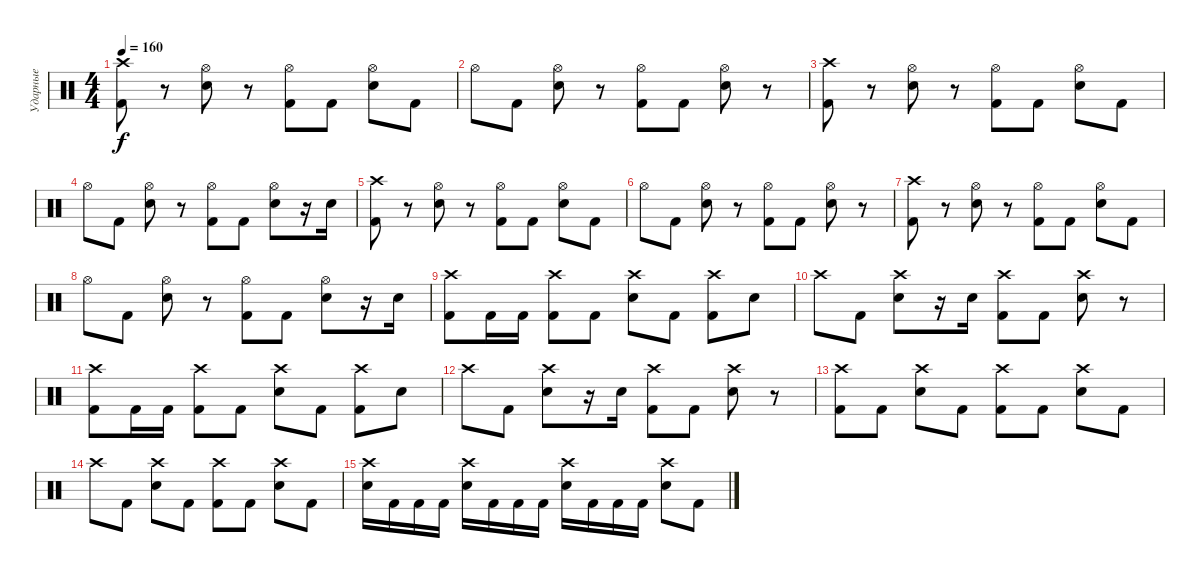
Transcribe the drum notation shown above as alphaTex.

\track ("Ударные" "Ударные") {instrument percussion}
\staff {score}
\articulation defaults
\ts (4 4)
\tempo 160
\clef neutral
\ks c
("Crash high (hit)" "Kick (hit) 2").8{dy f} r.8 ("Hi-Hat (open)" "Snare (hit) 2").8 r.8 ("Hi-Hat (open)" "Kick (hit) 2").8 "Kick (hit) 2".8 ("Hi-Hat (open)" "Snare (hit) 2").8 "Kick (hit) 2".8 |
"Hi-Hat (open)".8 "Kick (hit) 2".8 ("Hi-Hat (open)" "Snare (hit) 2").8 r.8 ("Hi-Hat (open)" "Kick (hit) 2").8 "Kick (hit) 2".8 ("Hi-Hat (open)" "Snare (hit) 2").8 r.8 |
("Crash high (hit)" "Kick (hit) 2").8 r.8 ("Hi-Hat (open)" "Snare (hit) 2").8 r.8 ("Hi-Hat (open)" "Kick (hit) 2").8 "Kick (hit) 2".8 ("Hi-Hat (open)" "Snare (hit) 2").8 "Kick (hit) 2".8 |
"Hi-Hat (open)".8 "Kick (hit) 2".8 ("Hi-Hat (open)" "Snare (hit) 2").8 r.8 ("Hi-Hat (open)" "Kick (hit) 2").8 "Kick (hit) 2".8 ("Hi-Hat (open)" "Snare (hit) 2").8 r.16 "Electric Snare (hit)".16 |
("Crash high (hit)" "Kick (hit) 2").8 r.8 ("Hi-Hat (open)" "Snare (hit) 2").8 r.8 ("Hi-Hat (open)" "Kick (hit) 2").8 "Kick (hit) 2".8 ("Hi-Hat (open)" "Snare (hit) 2").8 "Kick (hit) 2".8 |
"Hi-Hat (open)".8 "Kick (hit) 2".8 ("Hi-Hat (open)" "Snare (hit) 2").8 r.8 ("Hi-Hat (open)" "Kick (hit) 2").8 "Kick (hit) 2".8 ("Hi-Hat (open)" "Snare (hit) 2").8 r.8 |
("Crash high (hit)" "Kick (hit) 2").8 r.8 ("Hi-Hat (open)" "Snare (hit) 2").8 r.8 ("Hi-Hat (open)" "Kick (hit) 2").8 "Kick (hit) 2".8 ("Hi-Hat (open)" "Snare (hit) 2").8 "Kick (hit) 2".8 |
"Hi-Hat (open)".8 "Kick (hit) 2".8 ("Hi-Hat (open)" "Snare (hit) 2").8 r.8 ("Hi-Hat (open)" "Kick (hit) 2").8 "Kick (hit) 2".8 ("Hi-Hat (open)" "Snare (hit) 2").8 r.16 "Electric Snare (hit)".16 |
("Crash high (hit)" "Kick (hit) 2").8 "Kick (hit) 2".16 "Kick (hit) 2".16 ("Crash high (hit)" "Kick (hit) 2").8 "Kick (hit) 2".8 ("Crash high (hit)" "Snare (hit) 2").8 "Kick (hit) 2".8 ("Crash high (hit)" "Kick (hit) 2").8 "Snare (hit) 2".8 |
"Crash high (hit)".8 "Kick (hit) 2".8 ("Crash high (hit)" "Snare (hit) 2").8 r.16 "Snare (hit) 2".16 ("Crash high (hit)" "Kick (hit) 2").8 "Kick (hit) 2".8 ("Crash high (hit)" "Snare (hit) 2").8 r.8 |
("Crash high (hit)" "Kick (hit) 2").8 "Kick (hit) 2".16 "Kick (hit) 2".16 ("Crash high (hit)" "Kick (hit) 2").8 "Kick (hit) 2".8 ("Crash high (hit)" "Snare (hit) 2").8 "Kick (hit) 2".8 ("Crash high (hit)" "Kick (hit) 2").8 "Snare (hit) 2".8 |
"Crash high (hit)".8 "Kick (hit) 2".8 ("Crash high (hit)" "Snare (hit) 2").8 r.16 "Snare (hit) 2".16 ("Crash high (hit)" "Kick (hit) 2").8 "Kick (hit) 2".8 ("Crash high (hit)" "Snare (hit) 2").8 r.8 |
("Crash high (hit)" "Kick (hit) 2").8 "Kick (hit) 2".8 ("Crash high (hit)" "Snare (hit) 2").8 "Kick (hit) 2".8 ("Crash high (hit)" "Kick (hit) 2").8 "Kick (hit) 2".8 ("Crash high (hit)" "Snare (hit) 2").8 "Kick (hit) 2".8 |
"Crash high (hit)".8 "Kick (hit) 2".8 ("Crash high (hit)" "Snare (hit) 2").8 "Kick (hit) 2".8 ("Crash high (hit)" "Kick (hit) 2").8 "Kick (hit) 2".8 ("Crash high (hit)" "Snare (hit) 2").8 "Kick (hit) 2".8 |
("Crash high (hit)" "Snare (hit) 2").16 "Kick (hit) 2".16 "Kick (hit) 2".16 "Kick (hit) 2".16 ("Crash high (hit)" "Snare (hit) 2").16 "Kick (hit) 2".16 "Kick (hit) 2".16 "Kick (hit) 2".16 ("Crash high (hit)" "Snare (hit) 2").16 "Kick (hit) 2".16 "Kick (hit) 2".16 "Kick (hit) 2".16 ("Crash high (hit)" "Snare (hit) 2").8 "Kick (hit) 2".8
